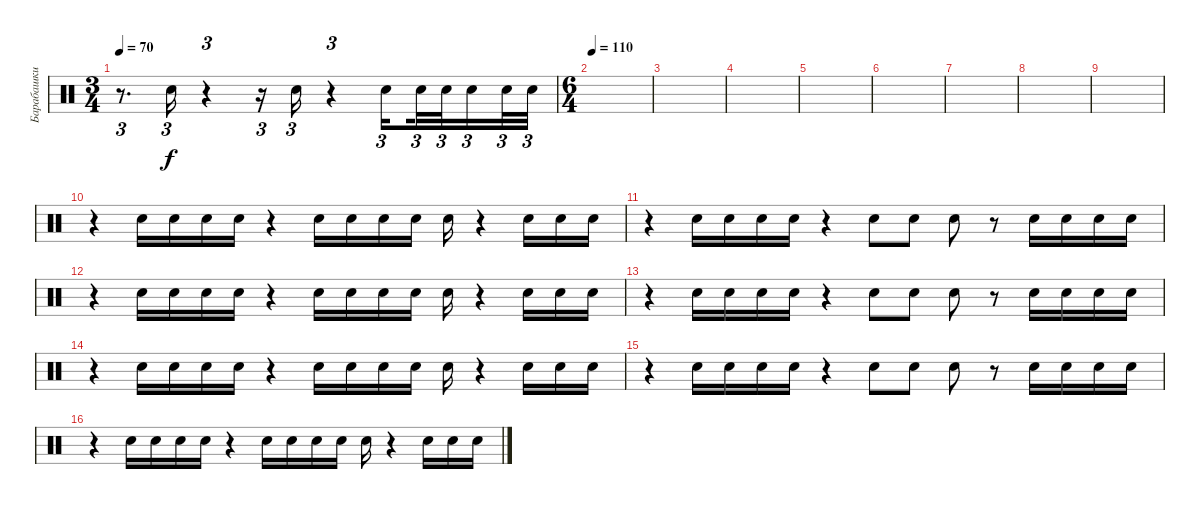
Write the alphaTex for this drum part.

\track ("Барабашки Middle" "Барабашки ") {instrument percussion}
\staff {score}
\articulation defaults
\ts (3 4)
\tempo 70
\clef neutral
\ks c
r.8{d tu (3 2) dy f} "Snare (hit) 2".16{tu (3 2)} r.4{tu (3 2)} r.16{tu (3 2)} "Snare (hit) 2".16{tu (3 2)} r.4{tu (3 2)} "Electric Snare (hit)".16{tu (3 2) beam splitsecondary} "Electric Snare (hit)".32{tu (3 2)} "Electric Snare (hit)".32{tu (3 2)} "Electric Snare (hit)".16{tu (3 2)} "Electric Snare (hit)".32{tu (3 2)} "Electric Snare (hit)".32{tu (3 2)} |
\ts (6 4)
\tempo 110
|
|
|
|
|
|
|
|
r.4 "Electric Snare (hit)".16 "Electric Snare (hit)".16 "Electric Snare (hit)".16 "Electric Snare (hit)".16 r.4 "Electric Snare (hit)".16 "Electric Snare (hit)".16 "Electric Snare (hit)".16 "Electric Snare (hit)".16 "Electric Snare (hit)".16 r.4 "Electric Snare (hit)".16 "Electric Snare (hit)".16 "Electric Snare (hit)".16 |
r.4 "Electric Snare (hit)".16 "Electric Snare (hit)".16 "Electric Snare (hit)".16 "Electric Snare (hit)".16 r.4 "Electric Snare (hit)".8 "Electric Snare (hit)".8 "Electric Snare (hit)".8 r.8 "Electric Snare (hit)".16 "Electric Snare (hit)".16 "Electric Snare (hit)".16 "Electric Snare (hit)".16 |
r.4 "Electric Snare (hit)".16 "Electric Snare (hit)".16 "Electric Snare (hit)".16 "Electric Snare (hit)".16 r.4 "Electric Snare (hit)".16 "Electric Snare (hit)".16 "Electric Snare (hit)".16 "Electric Snare (hit)".16 "Electric Snare (hit)".16 r.4 "Electric Snare (hit)".16 "Electric Snare (hit)".16 "Electric Snare (hit)".16 |
r.4 "Electric Snare (hit)".16 "Electric Snare (hit)".16 "Electric Snare (hit)".16 "Electric Snare (hit)".16 r.4 "Electric Snare (hit)".8 "Electric Snare (hit)".8 "Electric Snare (hit)".8 r.8 "Electric Snare (hit)".16 "Electric Snare (hit)".16 "Electric Snare (hit)".16 "Electric Snare (hit)".16 |
r.4 "Electric Snare (hit)".16 "Electric Snare (hit)".16 "Electric Snare (hit)".16 "Electric Snare (hit)".16 r.4 "Electric Snare (hit)".16 "Electric Snare (hit)".16 "Electric Snare (hit)".16 "Electric Snare (hit)".16 "Electric Snare (hit)".16 r.4 "Electric Snare (hit)".16 "Electric Snare (hit)".16 "Electric Snare (hit)".16 |
r.4 "Electric Snare (hit)".16 "Electric Snare (hit)".16 "Electric Snare (hit)".16 "Electric Snare (hit)".16 r.4 "Electric Snare (hit)".8 "Electric Snare (hit)".8 "Electric Snare (hit)".8 r.8 "Electric Snare (hit)".16 "Electric Snare (hit)".16 "Electric Snare (hit)".16 "Electric Snare (hit)".16 |
r.4 "Electric Snare (hit)".16 "Electric Snare (hit)".16 "Electric Snare (hit)".16 "Electric Snare (hit)".16 r.4 "Electric Snare (hit)".16 "Electric Snare (hit)".16 "Electric Snare (hit)".16 "Electric Snare (hit)".16 "Electric Snare (hit)".16 r.4 "Electric Snare (hit)".16 "Electric Snare (hit)".16 "Electric Snare (hit)".16
